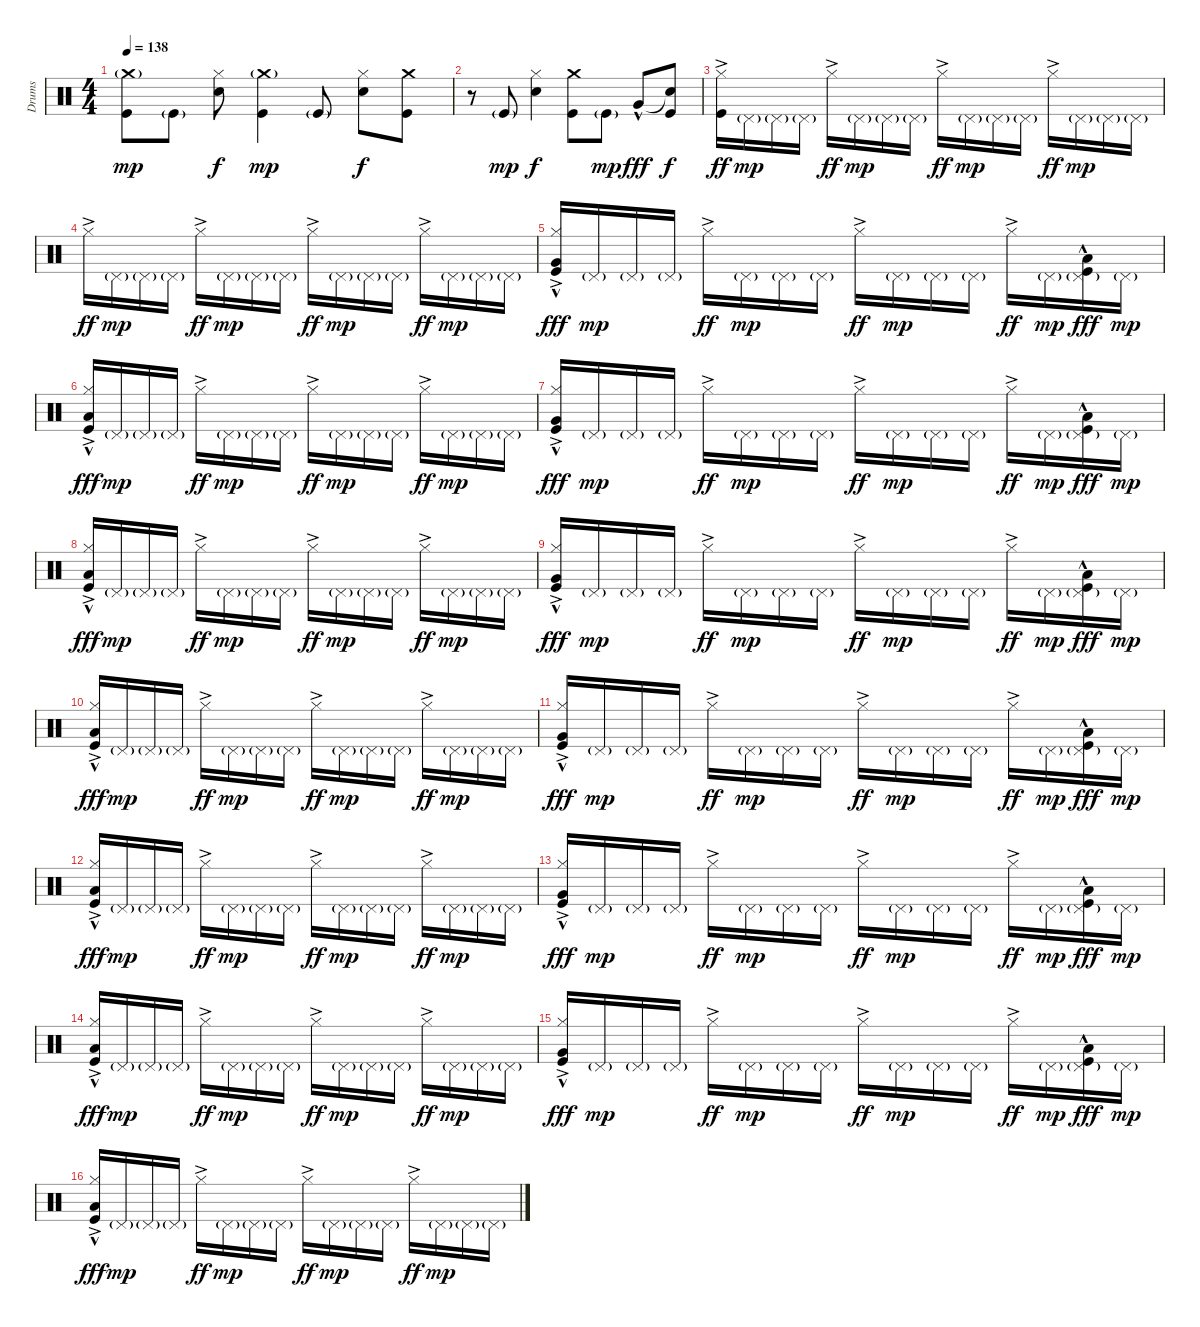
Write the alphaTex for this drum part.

\track ("Drums" "Drums") {instrument percussion}
\staff {score}
\articulation defaults
\ts (4 4)
\tempo 138
\clef neutral
\ks c
("Crash medium (hit)"{g} "Kick (hit)").8{dy mp} "Kick (hit)"{g}.8 ("Hi-Hat (closed)" "Electric Snare (hit)").8{dy f} ("Crash medium (hit)"{g} "Kick (hit)").4{dy mp} "Kick (hit)"{g}.8 ("Hi-Hat (closed)" "Electric Snare (hit)").8{dy f} ("Crash medium (hit)" "Kick (hit)").8 |
r.8 "Kick (hit)"{g}.8{dy mp} ("Hi-Hat (closed)" "Electric Snare (hit)").4{dy f} ("Crash medium (hit)" "Kick (hit)").8 "Kick (hit)"{g}.8{dy mp} "Very Low Tom (hit)"{hac}.8{dy fff} ("Snare (hit)"{t} "Kick (hit)").8{dy f} |
("Hi-Hat (closed)"{ac} "Kick (hit)").16{dy ff} "Pedal Hi-Hat (hit)"{g}.16{dy mp} "Pedal Hi-Hat (hit)"{g}.16 "Pedal Hi-Hat (hit)"{g}.16 "Hi-Hat (closed)"{ac}.16{dy ff} "Pedal Hi-Hat (hit)"{g}.16{dy mp} "Pedal Hi-Hat (hit)"{g}.16 "Pedal Hi-Hat (hit)"{g}.16 "Hi-Hat (closed)"{ac}.16{dy ff} "Pedal Hi-Hat (hit)"{g}.16{dy mp} "Pedal Hi-Hat (hit)"{g}.16 "Pedal Hi-Hat (hit)"{g}.16 "Hi-Hat (closed)"{ac}.16{dy ff} "Pedal Hi-Hat (hit)"{g}.16{dy mp} "Pedal Hi-Hat (hit)"{g}.16 "Pedal Hi-Hat (hit)"{g}.16 |
"Hi-Hat (closed)"{ac}.16{dy ff} "Pedal Hi-Hat (hit)"{g}.16{dy mp} "Pedal Hi-Hat (hit)"{g}.16 "Pedal Hi-Hat (hit)"{g}.16 "Hi-Hat (closed)"{ac}.16{dy ff} "Pedal Hi-Hat (hit)"{g}.16{dy mp} "Pedal Hi-Hat (hit)"{g}.16 "Pedal Hi-Hat (hit)"{g}.16 "Hi-Hat (closed)"{ac}.16{dy ff} "Pedal Hi-Hat (hit)"{g}.16{dy mp} "Pedal Hi-Hat (hit)"{g}.16 "Pedal Hi-Hat (hit)"{g}.16 "Hi-Hat (closed)"{ac}.16{dy ff} "Pedal Hi-Hat (hit)"{g}.16{dy mp} "Pedal Hi-Hat (hit)"{g}.16 "Pedal Hi-Hat (hit)"{g}.16 |
("Hi-Hat (closed)"{ac} "Very Low Tom (hit)"{hac} "Kick (hit)").16{dy fff} "Pedal Hi-Hat (hit)"{g}.16{dy mp} "Pedal Hi-Hat (hit)"{g}.16 "Pedal Hi-Hat (hit)"{g}.16 "Hi-Hat (closed)"{ac}.16{dy ff} "Pedal Hi-Hat (hit)"{g}.16{dy mp} "Pedal Hi-Hat (hit)"{g}.16 "Pedal Hi-Hat (hit)"{g}.16 "Hi-Hat (closed)"{ac}.16{dy ff} "Pedal Hi-Hat (hit)"{g}.16{dy mp} "Pedal Hi-Hat (hit)"{g}.16 "Pedal Hi-Hat (hit)"{g}.16 "Hi-Hat (closed)"{ac}.16{dy ff} "Pedal Hi-Hat (hit)"{g}.16{dy mp} ("Pedal Hi-Hat (hit)"{g} "Low Tom (hit)"{hac} "Kick (hit)").16{dy fff} "Pedal Hi-Hat (hit)"{g}.16{dy mp} |
("Hi-Hat (closed)"{ac} "Low Tom (hit)"{hac} "Kick (hit)").16{dy fff} "Pedal Hi-Hat (hit)"{g}.16{dy mp} "Pedal Hi-Hat (hit)"{g}.16 "Pedal Hi-Hat (hit)"{g}.16 "Hi-Hat (closed)"{ac}.16{dy ff} "Pedal Hi-Hat (hit)"{g}.16{dy mp} "Pedal Hi-Hat (hit)"{g}.16 "Pedal Hi-Hat (hit)"{g}.16 "Hi-Hat (closed)"{ac}.16{dy ff} "Pedal Hi-Hat (hit)"{g}.16{dy mp} "Pedal Hi-Hat (hit)"{g}.16 "Pedal Hi-Hat (hit)"{g}.16 "Hi-Hat (closed)"{ac}.16{dy ff} "Pedal Hi-Hat (hit)"{g}.16{dy mp} "Pedal Hi-Hat (hit)"{g}.16 "Pedal Hi-Hat (hit)"{g}.16 |
("Hi-Hat (closed)"{ac} "Very Low Tom (hit)"{hac} "Kick (hit)").16{dy fff} "Pedal Hi-Hat (hit)"{g}.16{dy mp} "Pedal Hi-Hat (hit)"{g}.16 "Pedal Hi-Hat (hit)"{g}.16 "Hi-Hat (closed)"{ac}.16{dy ff} "Pedal Hi-Hat (hit)"{g}.16{dy mp} "Pedal Hi-Hat (hit)"{g}.16 "Pedal Hi-Hat (hit)"{g}.16 "Hi-Hat (closed)"{ac}.16{dy ff} "Pedal Hi-Hat (hit)"{g}.16{dy mp} "Pedal Hi-Hat (hit)"{g}.16 "Pedal Hi-Hat (hit)"{g}.16 "Hi-Hat (closed)"{ac}.16{dy ff} "Pedal Hi-Hat (hit)"{g}.16{dy mp} ("Pedal Hi-Hat (hit)"{g} "Low Tom (hit)"{hac} "Kick (hit)").16{dy fff} "Pedal Hi-Hat (hit)"{g}.16{dy mp} |
("Hi-Hat (closed)"{ac} "Low Tom (hit)"{hac} "Kick (hit)").16{dy fff} "Pedal Hi-Hat (hit)"{g}.16{dy mp} "Pedal Hi-Hat (hit)"{g}.16 "Pedal Hi-Hat (hit)"{g}.16 "Hi-Hat (closed)"{ac}.16{dy ff} "Pedal Hi-Hat (hit)"{g}.16{dy mp} "Pedal Hi-Hat (hit)"{g}.16 "Pedal Hi-Hat (hit)"{g}.16 "Hi-Hat (closed)"{ac}.16{dy ff} "Pedal Hi-Hat (hit)"{g}.16{dy mp} "Pedal Hi-Hat (hit)"{g}.16 "Pedal Hi-Hat (hit)"{g}.16 "Hi-Hat (closed)"{ac}.16{dy ff} "Pedal Hi-Hat (hit)"{g}.16{dy mp} "Pedal Hi-Hat (hit)"{g}.16 "Pedal Hi-Hat (hit)"{g}.16 |
("Hi-Hat (closed)"{ac} "Very Low Tom (hit)"{hac} "Kick (hit)").16{dy fff} "Pedal Hi-Hat (hit)"{g}.16{dy mp} "Pedal Hi-Hat (hit)"{g}.16 "Pedal Hi-Hat (hit)"{g}.16 "Hi-Hat (closed)"{ac}.16{dy ff} "Pedal Hi-Hat (hit)"{g}.16{dy mp} "Pedal Hi-Hat (hit)"{g}.16 "Pedal Hi-Hat (hit)"{g}.16 "Hi-Hat (closed)"{ac}.16{dy ff} "Pedal Hi-Hat (hit)"{g}.16{dy mp} "Pedal Hi-Hat (hit)"{g}.16 "Pedal Hi-Hat (hit)"{g}.16 "Hi-Hat (closed)"{ac}.16{dy ff} "Pedal Hi-Hat (hit)"{g}.16{dy mp} ("Pedal Hi-Hat (hit)"{g} "Low Tom (hit)"{hac} "Kick (hit)").16{dy fff} "Pedal Hi-Hat (hit)"{g}.16{dy mp} |
("Hi-Hat (closed)"{ac} "Low Tom (hit)"{hac} "Kick (hit)").16{dy fff} "Pedal Hi-Hat (hit)"{g}.16{dy mp} "Pedal Hi-Hat (hit)"{g}.16 "Pedal Hi-Hat (hit)"{g}.16 "Hi-Hat (closed)"{ac}.16{dy ff} "Pedal Hi-Hat (hit)"{g}.16{dy mp} "Pedal Hi-Hat (hit)"{g}.16 "Pedal Hi-Hat (hit)"{g}.16 "Hi-Hat (closed)"{ac}.16{dy ff} "Pedal Hi-Hat (hit)"{g}.16{dy mp} "Pedal Hi-Hat (hit)"{g}.16 "Pedal Hi-Hat (hit)"{g}.16 "Hi-Hat (closed)"{ac}.16{dy ff} "Pedal Hi-Hat (hit)"{g}.16{dy mp} "Pedal Hi-Hat (hit)"{g}.16 "Pedal Hi-Hat (hit)"{g}.16 |
("Hi-Hat (closed)"{ac} "Very Low Tom (hit)"{hac} "Kick (hit)").16{dy fff} "Pedal Hi-Hat (hit)"{g}.16{dy mp} "Pedal Hi-Hat (hit)"{g}.16 "Pedal Hi-Hat (hit)"{g}.16 "Hi-Hat (closed)"{ac}.16{dy ff} "Pedal Hi-Hat (hit)"{g}.16{dy mp} "Pedal Hi-Hat (hit)"{g}.16 "Pedal Hi-Hat (hit)"{g}.16 "Hi-Hat (closed)"{ac}.16{dy ff} "Pedal Hi-Hat (hit)"{g}.16{dy mp} "Pedal Hi-Hat (hit)"{g}.16 "Pedal Hi-Hat (hit)"{g}.16 "Hi-Hat (closed)"{ac}.16{dy ff} "Pedal Hi-Hat (hit)"{g}.16{dy mp} ("Pedal Hi-Hat (hit)"{g} "Low Tom (hit)"{hac} "Kick (hit)").16{dy fff} "Pedal Hi-Hat (hit)"{g}.16{dy mp} |
("Hi-Hat (closed)"{ac} "Low Tom (hit)"{hac} "Kick (hit)").16{dy fff} "Pedal Hi-Hat (hit)"{g}.16{dy mp} "Pedal Hi-Hat (hit)"{g}.16 "Pedal Hi-Hat (hit)"{g}.16 "Hi-Hat (closed)"{ac}.16{dy ff} "Pedal Hi-Hat (hit)"{g}.16{dy mp} "Pedal Hi-Hat (hit)"{g}.16 "Pedal Hi-Hat (hit)"{g}.16 "Hi-Hat (closed)"{ac}.16{dy ff} "Pedal Hi-Hat (hit)"{g}.16{dy mp} "Pedal Hi-Hat (hit)"{g}.16 "Pedal Hi-Hat (hit)"{g}.16 "Hi-Hat (closed)"{ac}.16{dy ff} "Pedal Hi-Hat (hit)"{g}.16{dy mp} "Pedal Hi-Hat (hit)"{g}.16 "Pedal Hi-Hat (hit)"{g}.16 |
("Hi-Hat (closed)"{ac} "Very Low Tom (hit)"{hac} "Kick (hit)").16{dy fff} "Pedal Hi-Hat (hit)"{g}.16{dy mp} "Pedal Hi-Hat (hit)"{g}.16 "Pedal Hi-Hat (hit)"{g}.16 "Hi-Hat (closed)"{ac}.16{dy ff} "Pedal Hi-Hat (hit)"{g}.16{dy mp} "Pedal Hi-Hat (hit)"{g}.16 "Pedal Hi-Hat (hit)"{g}.16 "Hi-Hat (closed)"{ac}.16{dy ff} "Pedal Hi-Hat (hit)"{g}.16{dy mp} "Pedal Hi-Hat (hit)"{g}.16 "Pedal Hi-Hat (hit)"{g}.16 "Hi-Hat (closed)"{ac}.16{dy ff} "Pedal Hi-Hat (hit)"{g}.16{dy mp} ("Pedal Hi-Hat (hit)"{g} "Low Tom (hit)"{hac} "Kick (hit)").16{dy fff} "Pedal Hi-Hat (hit)"{g}.16{dy mp} |
("Hi-Hat (closed)"{ac} "Low Tom (hit)"{hac} "Kick (hit)").16{dy fff} "Pedal Hi-Hat (hit)"{g}.16{dy mp} "Pedal Hi-Hat (hit)"{g}.16 "Pedal Hi-Hat (hit)"{g}.16 "Hi-Hat (closed)"{ac}.16{dy ff} "Pedal Hi-Hat (hit)"{g}.16{dy mp} "Pedal Hi-Hat (hit)"{g}.16 "Pedal Hi-Hat (hit)"{g}.16 "Hi-Hat (closed)"{ac}.16{dy ff} "Pedal Hi-Hat (hit)"{g}.16{dy mp} "Pedal Hi-Hat (hit)"{g}.16 "Pedal Hi-Hat (hit)"{g}.16 "Hi-Hat (closed)"{ac}.16{dy ff} "Pedal Hi-Hat (hit)"{g}.16{dy mp} "Pedal Hi-Hat (hit)"{g}.16 "Pedal Hi-Hat (hit)"{g}.16 |
("Hi-Hat (closed)"{ac} "Very Low Tom (hit)"{hac} "Kick (hit)").16{dy fff} "Pedal Hi-Hat (hit)"{g}.16{dy mp} "Pedal Hi-Hat (hit)"{g}.16 "Pedal Hi-Hat (hit)"{g}.16 "Hi-Hat (closed)"{ac}.16{dy ff} "Pedal Hi-Hat (hit)"{g}.16{dy mp} "Pedal Hi-Hat (hit)"{g}.16 "Pedal Hi-Hat (hit)"{g}.16 "Hi-Hat (closed)"{ac}.16{dy ff} "Pedal Hi-Hat (hit)"{g}.16{dy mp} "Pedal Hi-Hat (hit)"{g}.16 "Pedal Hi-Hat (hit)"{g}.16 "Hi-Hat (closed)"{ac}.16{dy ff} "Pedal Hi-Hat (hit)"{g}.16{dy mp} ("Pedal Hi-Hat (hit)"{g} "Low Tom (hit)"{hac} "Kick (hit)").16{dy fff} "Pedal Hi-Hat (hit)"{g}.16{dy mp} |
("Hi-Hat (closed)"{ac} "Low Tom (hit)"{hac} "Kick (hit)").16{dy fff} "Pedal Hi-Hat (hit)"{g}.16{dy mp} "Pedal Hi-Hat (hit)"{g}.16 "Pedal Hi-Hat (hit)"{g}.16 "Hi-Hat (closed)"{ac}.16{dy ff} "Pedal Hi-Hat (hit)"{g}.16{dy mp} "Pedal Hi-Hat (hit)"{g}.16 "Pedal Hi-Hat (hit)"{g}.16 "Hi-Hat (closed)"{ac}.16{dy ff} "Pedal Hi-Hat (hit)"{g}.16{dy mp} "Pedal Hi-Hat (hit)"{g}.16 "Pedal Hi-Hat (hit)"{g}.16 "Hi-Hat (closed)"{ac}.16{dy ff} "Pedal Hi-Hat (hit)"{g}.16{dy mp} "Pedal Hi-Hat (hit)"{g}.16 "Pedal Hi-Hat (hit)"{g}.16
